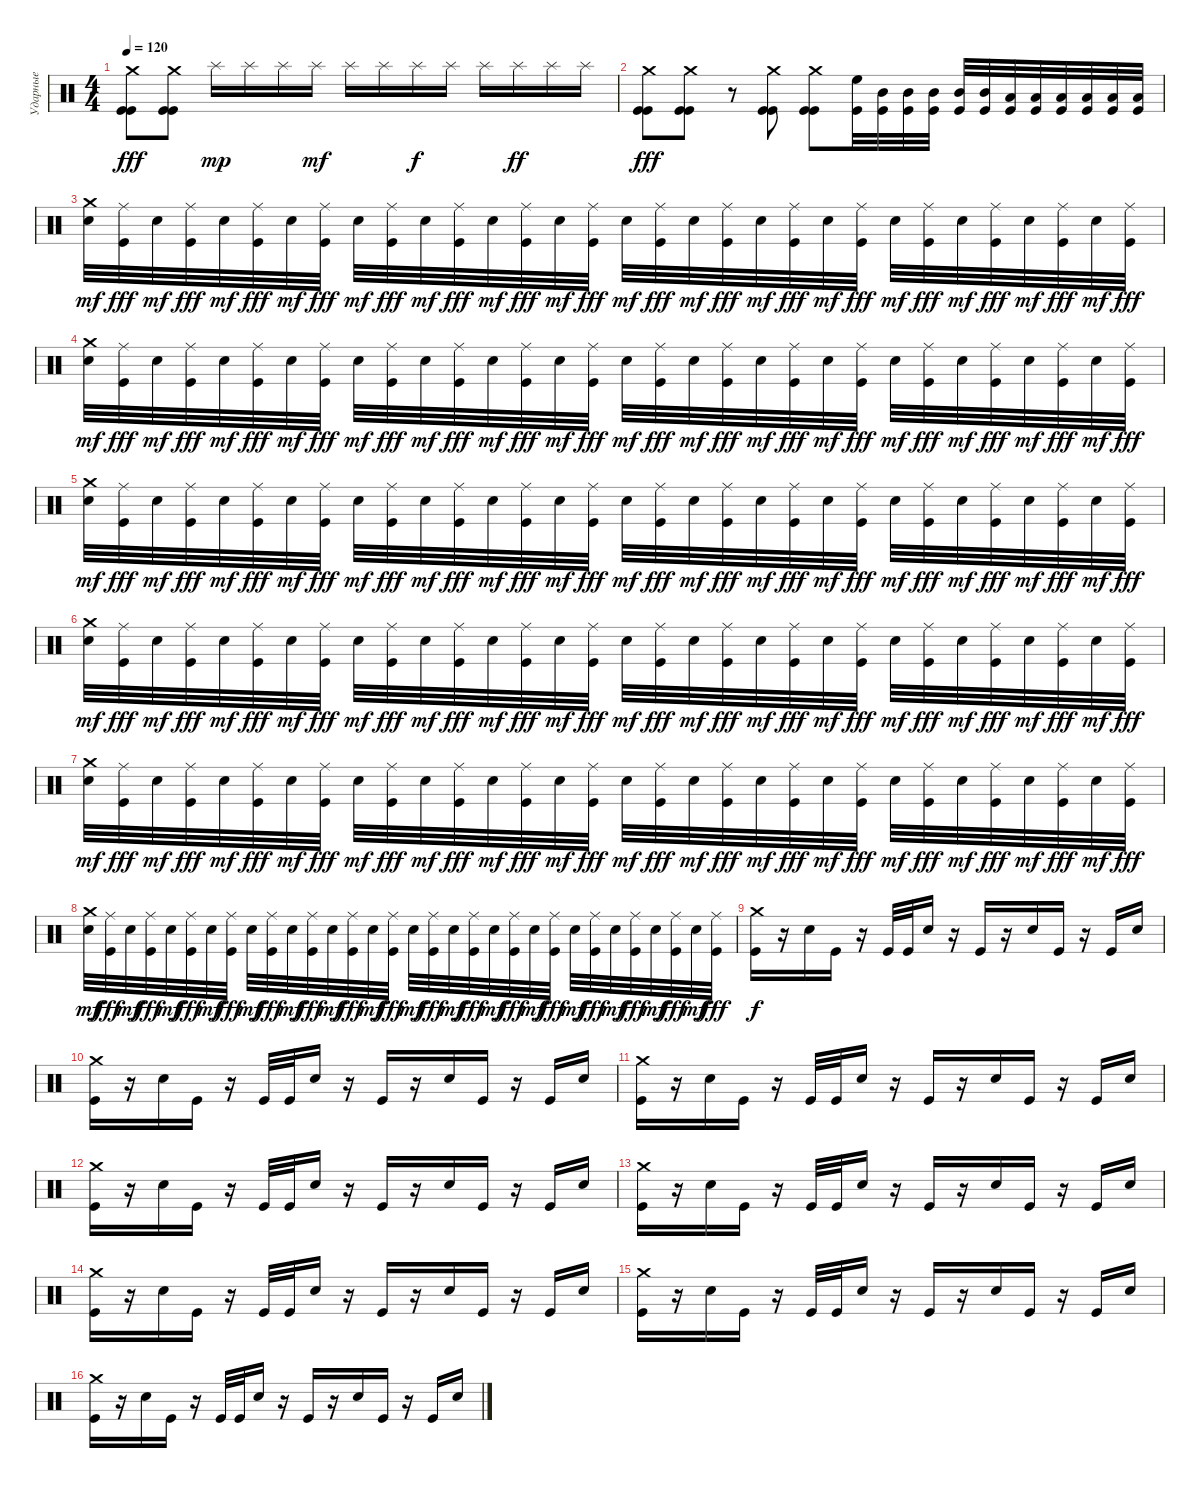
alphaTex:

\track ("Ударные" "Ударные") {instrument percussion}
\staff {score}
\articulation defaults
\ts (4 4)
\tempo 120
\clef neutral
\ks c
("Kick (hit)" "Crash medium (hit)" "Kick (hit)").8{dy fff} ("Kick (hit)" "Crash medium (hit)" "Kick (hit)").8 "Splash (hit)".16{dy mp} "Splash (hit)".16 "Splash (hit)".16 "Splash (hit)".16{dy mf} "Splash (hit)".16 "Splash (hit)".16 "Splash (hit)".16{dy f} "Splash (hit)".16 "Splash (hit)".16 "Splash (hit)".16{dy ff} "Splash (hit)".16 "Splash (hit)".16 |
("Kick (hit)" "Crash medium (hit)" "Kick (hit)").8{dy fff} ("Kick (hit)" "Crash medium (hit)" "Kick (hit)").8 r.8 ("Kick (hit)" "Crash medium (hit)" "Kick (hit)").8 ("Kick (hit)" "Crash medium (hit)" "Kick (hit)").8 ("High Floor Tom (hit)" "Kick (hit)").32 ("Mid Tom (hit)" "Kick (hit)").32 ("Mid Tom (hit)" "Kick (hit)").32 ("Mid Tom (hit)" "Kick (hit)").32 ("Mid Tom (hit)" "Kick (hit)").32 ("Mid Tom (hit)" "Kick (hit)").32 ("Low Tom (hit)" "Kick (hit)").32 ("Low Tom (hit)" "Kick (hit)").32 ("Low Tom (hit)" "Kick (hit)").32 ("Low Tom (hit)" "Kick (hit)").32 ("Low Tom (hit)" "Kick (hit)").32 ("Low Tom (hit)" "Kick (hit)").32 |
("Electric Snare (hit)" "Crash medium (hit)").32{dy mf} ("Ride (middle)" "Kick (hit)").32{dy fff} "Electric Snare (hit)".32{dy mf} ("Ride (middle)" "Kick (hit)").32{dy fff} "Electric Snare (hit)".32{dy mf} ("Ride (middle)" "Kick (hit)").32{dy fff} "Electric Snare (hit)".32{dy mf} ("Ride (middle)" "Kick (hit)").32{dy fff} "Electric Snare (hit)".32{dy mf} ("Ride (middle)" "Kick (hit)").32{dy fff} "Electric Snare (hit)".32{dy mf} ("Ride (middle)" "Kick (hit)").32{dy fff} "Electric Snare (hit)".32{dy mf} ("Ride (middle)" "Kick (hit)").32{dy fff} "Electric Snare (hit)".32{dy mf} ("Ride (middle)" "Kick (hit)").32{dy fff} "Electric Snare (hit)".32{dy mf} ("Ride (middle)" "Kick (hit)").32{dy fff} "Electric Snare (hit)".32{dy mf} ("Ride (middle)" "Kick (hit)").32{dy fff} "Electric Snare (hit)".32{dy mf} ("Ride (middle)" "Kick (hit)").32{dy fff} "Electric Snare (hit)".32{dy mf} ("Ride (middle)" "Kick (hit)").32{dy fff} "Electric Snare (hit)".32{dy mf} ("Ride (middle)" "Kick (hit)").32{dy fff} "Electric Snare (hit)".32{dy mf} ("Ride (middle)" "Kick (hit)").32{dy fff} "Electric Snare (hit)".32{dy mf} ("Ride (middle)" "Kick (hit)").32{dy fff} "Electric Snare (hit)".32{dy mf} ("Ride (middle)" "Kick (hit)").32{dy fff} |
("Electric Snare (hit)" "Crash medium (hit)").32{dy mf} ("Ride (middle)" "Kick (hit)").32{dy fff} "Electric Snare (hit)".32{dy mf} ("Ride (middle)" "Kick (hit)").32{dy fff} "Electric Snare (hit)".32{dy mf} ("Ride (middle)" "Kick (hit)").32{dy fff} "Electric Snare (hit)".32{dy mf} ("Ride (middle)" "Kick (hit)").32{dy fff} "Electric Snare (hit)".32{dy mf} ("Ride (middle)" "Kick (hit)").32{dy fff} "Electric Snare (hit)".32{dy mf} ("Ride (middle)" "Kick (hit)").32{dy fff} "Electric Snare (hit)".32{dy mf} ("Ride (middle)" "Kick (hit)").32{dy fff} "Electric Snare (hit)".32{dy mf} ("Ride (middle)" "Kick (hit)").32{dy fff} "Electric Snare (hit)".32{dy mf} ("Ride (middle)" "Kick (hit)").32{dy fff} "Electric Snare (hit)".32{dy mf} ("Ride (middle)" "Kick (hit)").32{dy fff} "Electric Snare (hit)".32{dy mf} ("Ride (middle)" "Kick (hit)").32{dy fff} "Electric Snare (hit)".32{dy mf} ("Ride (middle)" "Kick (hit)").32{dy fff} "Electric Snare (hit)".32{dy mf} ("Ride (middle)" "Kick (hit)").32{dy fff} "Electric Snare (hit)".32{dy mf} ("Ride (middle)" "Kick (hit)").32{dy fff} "Electric Snare (hit)".32{dy mf} ("Ride (middle)" "Kick (hit)").32{dy fff} "Electric Snare (hit)".32{dy mf} ("Ride (middle)" "Kick (hit)").32{dy fff} |
("Electric Snare (hit)" "Crash medium (hit)").32{dy mf} ("Ride (middle)" "Kick (hit)").32{dy fff} "Electric Snare (hit)".32{dy mf} ("Ride (middle)" "Kick (hit)").32{dy fff} "Electric Snare (hit)".32{dy mf} ("Ride (middle)" "Kick (hit)").32{dy fff} "Electric Snare (hit)".32{dy mf} ("Ride (middle)" "Kick (hit)").32{dy fff} "Electric Snare (hit)".32{dy mf} ("Ride (middle)" "Kick (hit)").32{dy fff} "Electric Snare (hit)".32{dy mf} ("Ride (middle)" "Kick (hit)").32{dy fff} "Electric Snare (hit)".32{dy mf} ("Ride (middle)" "Kick (hit)").32{dy fff} "Electric Snare (hit)".32{dy mf} ("Ride (middle)" "Kick (hit)").32{dy fff} "Electric Snare (hit)".32{dy mf} ("Ride (middle)" "Kick (hit)").32{dy fff} "Electric Snare (hit)".32{dy mf} ("Ride (middle)" "Kick (hit)").32{dy fff} "Electric Snare (hit)".32{dy mf} ("Ride (middle)" "Kick (hit)").32{dy fff} "Electric Snare (hit)".32{dy mf} ("Ride (middle)" "Kick (hit)").32{dy fff} "Electric Snare (hit)".32{dy mf} ("Ride (middle)" "Kick (hit)").32{dy fff} "Electric Snare (hit)".32{dy mf} ("Ride (middle)" "Kick (hit)").32{dy fff} "Electric Snare (hit)".32{dy mf} ("Ride (middle)" "Kick (hit)").32{dy fff} "Electric Snare (hit)".32{dy mf} ("Ride (middle)" "Kick (hit)").32{dy fff} |
("Electric Snare (hit)" "Crash medium (hit)").32{dy mf} ("Ride (middle)" "Kick (hit)").32{dy fff} "Electric Snare (hit)".32{dy mf} ("Ride (middle)" "Kick (hit)").32{dy fff} "Electric Snare (hit)".32{dy mf} ("Ride (middle)" "Kick (hit)").32{dy fff} "Electric Snare (hit)".32{dy mf} ("Ride (middle)" "Kick (hit)").32{dy fff} "Electric Snare (hit)".32{dy mf} ("Ride (middle)" "Kick (hit)").32{dy fff} "Electric Snare (hit)".32{dy mf} ("Ride (middle)" "Kick (hit)").32{dy fff} "Electric Snare (hit)".32{dy mf} ("Ride (middle)" "Kick (hit)").32{dy fff} "Electric Snare (hit)".32{dy mf} ("Ride (middle)" "Kick (hit)").32{dy fff} "Electric Snare (hit)".32{dy mf} ("Ride (middle)" "Kick (hit)").32{dy fff} "Electric Snare (hit)".32{dy mf} ("Ride (middle)" "Kick (hit)").32{dy fff} "Electric Snare (hit)".32{dy mf} ("Ride (middle)" "Kick (hit)").32{dy fff} "Electric Snare (hit)".32{dy mf} ("Ride (middle)" "Kick (hit)").32{dy fff} "Electric Snare (hit)".32{dy mf} ("Ride (middle)" "Kick (hit)").32{dy fff} "Electric Snare (hit)".32{dy mf} ("Ride (middle)" "Kick (hit)").32{dy fff} "Electric Snare (hit)".32{dy mf} ("Ride (middle)" "Kick (hit)").32{dy fff} "Electric Snare (hit)".32{dy mf} ("Ride (middle)" "Kick (hit)").32{dy fff} |
("Electric Snare (hit)" "Crash medium (hit)").32{dy mf} ("Ride (middle)" "Kick (hit)").32{dy fff} "Electric Snare (hit)".32{dy mf} ("Ride (middle)" "Kick (hit)").32{dy fff} "Electric Snare (hit)".32{dy mf} ("Ride (middle)" "Kick (hit)").32{dy fff} "Electric Snare (hit)".32{dy mf} ("Ride (middle)" "Kick (hit)").32{dy fff} "Electric Snare (hit)".32{dy mf} ("Ride (middle)" "Kick (hit)").32{dy fff} "Electric Snare (hit)".32{dy mf} ("Ride (middle)" "Kick (hit)").32{dy fff} "Electric Snare (hit)".32{dy mf} ("Ride (middle)" "Kick (hit)").32{dy fff} "Electric Snare (hit)".32{dy mf} ("Ride (middle)" "Kick (hit)").32{dy fff} "Electric Snare (hit)".32{dy mf} ("Ride (middle)" "Kick (hit)").32{dy fff} "Electric Snare (hit)".32{dy mf} ("Ride (middle)" "Kick (hit)").32{dy fff} "Electric Snare (hit)".32{dy mf} ("Ride (middle)" "Kick (hit)").32{dy fff} "Electric Snare (hit)".32{dy mf} ("Ride (middle)" "Kick (hit)").32{dy fff} "Electric Snare (hit)".32{dy mf} ("Ride (middle)" "Kick (hit)").32{dy fff} "Electric Snare (hit)".32{dy mf} ("Ride (middle)" "Kick (hit)").32{dy fff} "Electric Snare (hit)".32{dy mf} ("Ride (middle)" "Kick (hit)").32{dy fff} "Electric Snare (hit)".32{dy mf} ("Ride (middle)" "Kick (hit)").32{dy fff} |
("Electric Snare (hit)" "Crash medium (hit)").32{dy mf} ("Ride (middle)" "Kick (hit)").32{dy fff} "Electric Snare (hit)".32{dy mf} ("Ride (middle)" "Kick (hit)").32{dy fff} "Electric Snare (hit)".32{dy mf} ("Ride (middle)" "Kick (hit)").32{dy fff} "Electric Snare (hit)".32{dy mf} ("Ride (middle)" "Kick (hit)").32{dy fff} "Electric Snare (hit)".32{dy mf} ("Ride (middle)" "Kick (hit)").32{dy fff} "Electric Snare (hit)".32{dy mf} ("Ride (middle)" "Kick (hit)").32{dy fff} "Electric Snare (hit)".32{dy mf} ("Ride (middle)" "Kick (hit)").32{dy fff} "Electric Snare (hit)".32{dy mf} ("Ride (middle)" "Kick (hit)").32{dy fff} "Electric Snare (hit)".32{dy mf} ("Ride (middle)" "Kick (hit)").32{dy fff} "Electric Snare (hit)".32{dy mf} ("Ride (middle)" "Kick (hit)").32{dy fff} "Electric Snare (hit)".32{dy mf} ("Ride (middle)" "Kick (hit)").32{dy fff} "Electric Snare (hit)".32{dy mf} ("Ride (middle)" "Kick (hit)").32{dy fff} "Electric Snare (hit)".32{dy mf} ("Ride (middle)" "Kick (hit)").32{dy fff} "Electric Snare (hit)".32{dy mf} ("Ride (middle)" "Kick (hit)").32{dy fff} "Electric Snare (hit)".32{dy mf} ("Ride (middle)" "Kick (hit)").32{dy fff} "Electric Snare (hit)".32{dy mf} ("Ride (middle)" "Kick (hit)").32{dy fff} |
("Crash medium (hit)" "Kick (hit)").16{dy f} r.16 "Electric Snare (hit)".16 "Kick (hit)".16 r.16 "Kick (hit)".32 "Kick (hit)".32 "Electric Snare (hit)".16 r.16 "Kick (hit)".16 r.16 "Electric Snare (hit)".16 "Kick (hit)".16 r.16 "Kick (hit)".16 "Electric Snare (hit)".16 |
("Crash medium (hit)" "Kick (hit)").16 r.16 "Electric Snare (hit)".16 "Kick (hit)".16 r.16 "Kick (hit)".32 "Kick (hit)".32 "Electric Snare (hit)".16 r.16 "Kick (hit)".16 r.16 "Electric Snare (hit)".16 "Kick (hit)".16 r.16 "Kick (hit)".16 "Electric Snare (hit)".16 |
("Crash medium (hit)" "Kick (hit)").16 r.16 "Electric Snare (hit)".16 "Kick (hit)".16 r.16 "Kick (hit)".32 "Kick (hit)".32 "Electric Snare (hit)".16 r.16 "Kick (hit)".16 r.16 "Electric Snare (hit)".16 "Kick (hit)".16 r.16 "Kick (hit)".16 "Electric Snare (hit)".16 |
("Crash medium (hit)" "Kick (hit)").16 r.16 "Electric Snare (hit)".16 "Kick (hit)".16 r.16 "Kick (hit)".32 "Kick (hit)".32 "Electric Snare (hit)".16 r.16 "Kick (hit)".16 r.16 "Electric Snare (hit)".16 "Kick (hit)".16 r.16 "Kick (hit)".16 "Electric Snare (hit)".16 |
("Crash medium (hit)" "Kick (hit)").16 r.16 "Electric Snare (hit)".16 "Kick (hit)".16 r.16 "Kick (hit)".32 "Kick (hit)".32 "Electric Snare (hit)".16 r.16 "Kick (hit)".16 r.16 "Electric Snare (hit)".16 "Kick (hit)".16 r.16 "Kick (hit)".16 "Electric Snare (hit)".16 |
("Crash medium (hit)" "Kick (hit)").16 r.16 "Electric Snare (hit)".16 "Kick (hit)".16 r.16 "Kick (hit)".32 "Kick (hit)".32 "Electric Snare (hit)".16 r.16 "Kick (hit)".16 r.16 "Electric Snare (hit)".16 "Kick (hit)".16 r.16 "Kick (hit)".16 "Electric Snare (hit)".16 |
("Crash medium (hit)" "Kick (hit)").16 r.16 "Electric Snare (hit)".16 "Kick (hit)".16 r.16 "Kick (hit)".32 "Kick (hit)".32 "Electric Snare (hit)".16 r.16 "Kick (hit)".16 r.16 "Electric Snare (hit)".16 "Kick (hit)".16 r.16 "Kick (hit)".16 "Electric Snare (hit)".16 |
("Crash medium (hit)" "Kick (hit)").16 r.16 "Electric Snare (hit)".16 "Kick (hit)".16 r.16 "Kick (hit)".32 "Kick (hit)".32 "Electric Snare (hit)".16 r.16 "Kick (hit)".16 r.16 "Electric Snare (hit)".16 "Kick (hit)".16 r.16 "Kick (hit)".16 "Electric Snare (hit)".16
